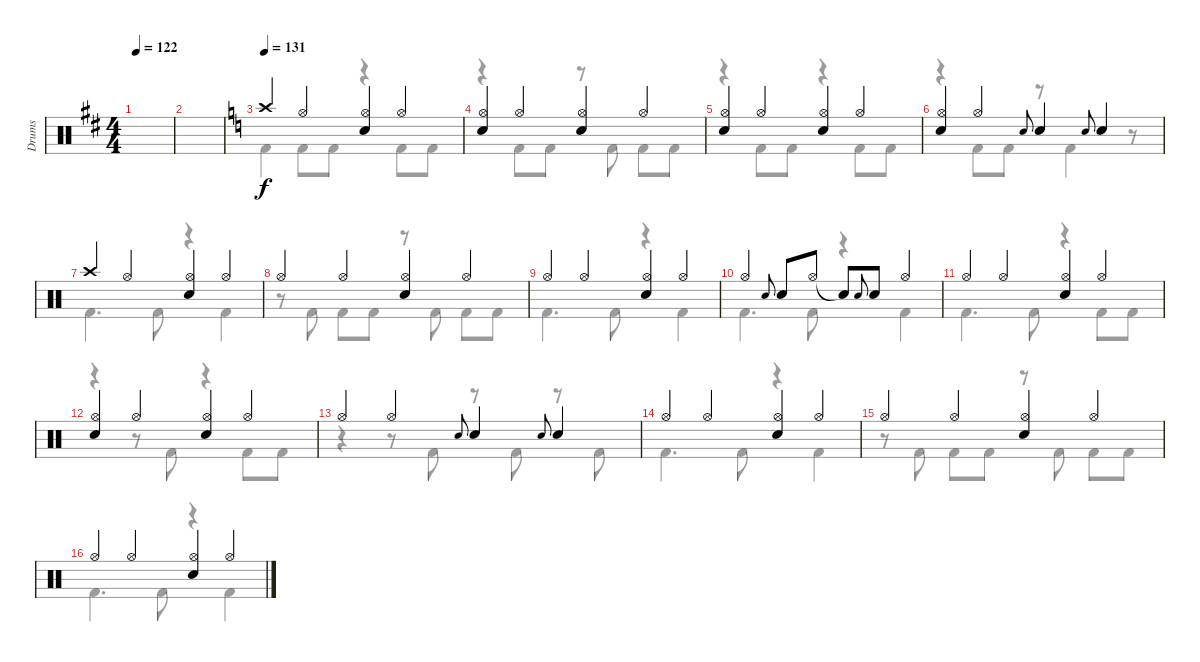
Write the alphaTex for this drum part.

\track ("Drums" "Drums") {instrument percussion}
\staff {score}
\articulation defaults
\voice
\ts (4 4)
\tempo 122
\clef neutral
\ks d
|
|
\tempo 131
\ks c "Crash high (hit)".4{dy f} "Hi-Hat (open)".4
("Hi-Hat (open)" "Electric Snare (hit)").4 "Hi-Hat (open)".4 |
("Hi-Hat (open)" "Electric Snare (hit)").4 "Hi-Hat (open)".4 ("Hi-Hat (open)" "Electric Snare (hit)").4 "Hi-Hat (open)".4 |
("Hi-Hat (open)" "Electric Snare (hit)").4 "Hi-Hat (open)".4 ("Hi-Hat (open)" "Electric Snare (hit)").4 "Hi-Hat (open)".4 |
("Hi-Hat (open)" "Electric Snare (hit)").4 "Hi-Hat (open)".4 "Electric Snare (hit)".8{gr onbeat} "Electric Snare (hit)".4 "Electric Snare (hit)".8{gr onbeat} "Electric Snare (hit)".4 |
"Crash high (hit)".4 "Hi-Hat (open)".4 ("Hi-Hat (open)" "Electric Snare (hit)").4 "Hi-Hat (open)".4 |
"Hi-Hat (open)".4 "Hi-Hat (open)".4 ("Hi-Hat (open)" "Electric Snare (hit)").4 "Hi-Hat (open)".4 |
"Hi-Hat (open)".4 "Hi-Hat (open)".4 ("Hi-Hat (open)" "Electric Snare (hit)").4 "Hi-Hat (open)".4 |
"Hi-Hat (open)".4 "Electric Snare (hit)".8{gr onbeat} "Electric Snare (hit)".8 "Hi-Hat (open)".8 "Snare (hit)"{t}.8 "Electric Snare (hit)".8{gr onbeat} "Electric Snare (hit)".8 "Hi-Hat (open)".4 |
"Hi-Hat (open)".4 "Hi-Hat (open)".4 ("Hi-Hat (open)" "Electric Snare (hit)").4 "Hi-Hat (open)".4 |
("Hi-Hat (open)" "Electric Snare (hit)").4 "Hi-Hat (open)".4 ("Hi-Hat (open)" "Electric Snare (hit)").4 "Hi-Hat (open)".4 |
"Hi-Hat (open)".4 "Hi-Hat (open)".4 "Electric Snare (hit)".8{gr onbeat} "Electric Snare (hit)".4 "Electric Snare (hit)".8{gr onbeat} "Electric Snare (hit)".4 |
"Hi-Hat (open)".4 "Hi-Hat (open)".4 ("Hi-Hat (open)" "Electric Snare (hit)").4 "Hi-Hat (open)".4 |
"Hi-Hat (open)".4 "Hi-Hat (open)".4 ("Hi-Hat (open)" "Electric Snare (hit)").4 "Hi-Hat (open)".4 |
"Hi-Hat (open)".4 "Hi-Hat (open)".4 ("Hi-Hat (open)" "Electric Snare (hit)").4 "Hi-Hat (open)".4
\voice
\clef neutral
\ottava regular
\simile none
\ks d
|
|
\ks c "Kick (hit) 2".4 "Kick (hit) 2".8 "Kick (hit) 2".8
r.4 "Kick (hit) 2".8 "Kick (hit) 2".8 |
r.4 "Kick (hit) 2".8 "Kick (hit) 2".8 r.8 "Kick (hit) 2".8 "Kick (hit) 2".8 "Kick (hit) 2".8 |
r.4 "Kick (hit) 2".8 "Kick (hit) 2".8 r.4 "Kick (hit) 2".8 "Kick (hit) 2".8 |
r.4 "Kick (hit) 2".8 "Kick (hit) 2".8 r.8 "Kick (hit) 2".4 r.8 |
"Kick (hit) 2".4{d} "Kick (hit) 2".8 r.4 "Kick (hit) 2".4 |
r.8 "Kick (hit) 2".8 "Kick (hit) 2".8 "Kick (hit) 2".8 r.8 "Kick (hit) 2".8 "Kick (hit) 2".8 "Kick (hit) 2".8 |
"Kick (hit) 2".4{d} "Kick (hit) 2".8 r.4 "Kick (hit) 2".4 |
"Kick (hit) 2".4{d} "Kick (hit) 2".8 r.4 "Kick (hit) 2".4 |
"Kick (hit) 2".4{d} "Kick (hit) 2".8 r.4 "Kick (hit) 2".8{beam merge} "Kick (hit) 2".8 |
r.4 r.8 "Kick (hit) 2".8 r.4 "Kick (hit) 2".8 "Kick (hit) 2".8 |
r.4 r.8 "Kick (hit) 2".8 r.8 "Kick (hit) 2".8 r.8 "Kick (hit) 2".8 |
"Kick (hit) 2".4{d} "Kick (hit) 2".8 r.4 "Kick (hit) 2".4 |
r.8 "Kick (hit) 2".8 "Kick (hit) 2".8 "Kick (hit) 2".8 r.8 "Kick (hit) 2".8 "Kick (hit) 2".8 "Kick (hit) 2".8 |
"Kick (hit) 2".4{d} "Kick (hit) 2".8 r.4 "Kick (hit) 2".4
